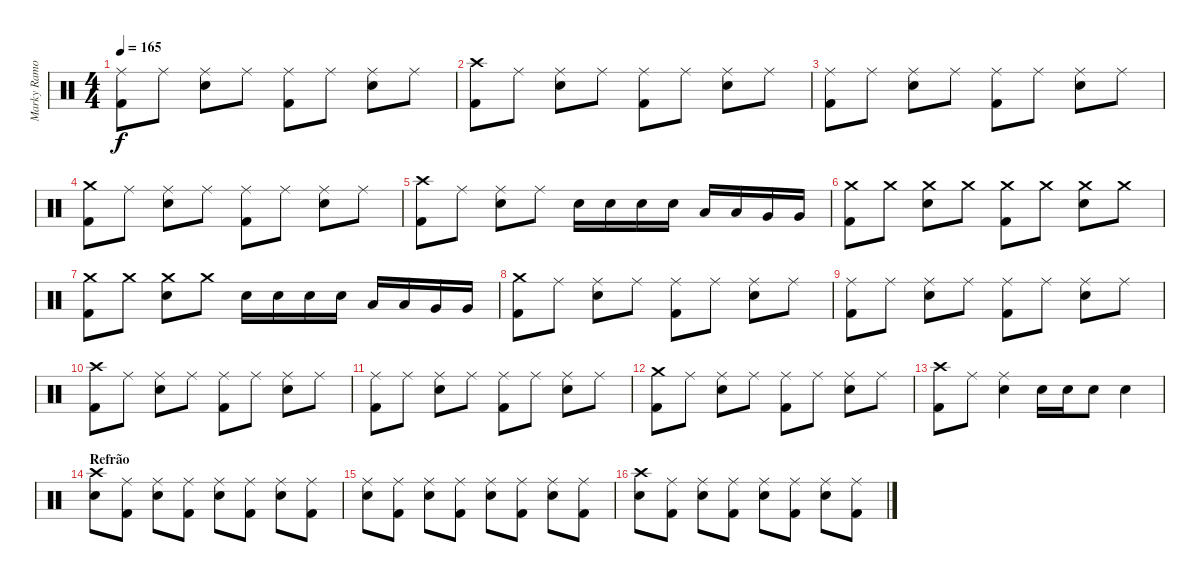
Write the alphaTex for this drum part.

\track ("Marky Ramone, o Próprio" "Marky Ramo") {instrument percussion}
\staff {score}
\articulation defaults
\ts (4 4)
\tempo 165
\clef neutral
\ks c
("Ride (middle)" "Kick (hit) 2").8{dy f} "Ride (middle)".8 ("Ride (middle)" "Electric Snare (hit)").8 "Ride (middle)".8 ("Ride (middle)" "Kick (hit) 2").8 "Ride (middle)".8 ("Ride (middle)" "Electric Snare (hit)").8 "Ride (middle)".8 |
("Crash high (hit)" "Kick (hit) 2").8 "Ride (middle)".8 ("Ride (middle)" "Electric Snare (hit)").8 "Ride (middle)".8 ("Ride (middle)" "Kick (hit) 2").8 "Ride (middle)".8 ("Ride (middle)" "Electric Snare (hit)").8 "Ride (middle)".8 |
("Ride (middle)" "Kick (hit) 2").8 "Ride (middle)".8 ("Ride (middle)" "Electric Snare (hit)").8 "Ride (middle)".8 ("Ride (middle)" "Kick (hit) 2").8 "Ride (middle)".8 ("Ride (middle)" "Electric Snare (hit)").8 "Ride (middle)".8 |
("Crash medium (hit)" "Kick (hit) 2").8 "Ride (middle)".8 ("Ride (middle)" "Electric Snare (hit)").8 "Ride (middle)".8 ("Ride (middle)" "Kick (hit) 2").8 "Ride (middle)".8 ("Ride (middle)" "Electric Snare (hit)").8 "Ride (middle)".8 |
("Crash high (hit)" "Kick (hit) 2").8 "Ride (middle)".8 ("Ride (middle)" "Electric Snare (hit)").8 "Ride (middle)".8 "Electric Snare (hit)".16 "Electric Snare (hit)".16 "Electric Snare (hit)".16 "Electric Snare (hit)".16 "Low Tom (hit)".16 "Low Tom (hit)".16 "Very Low Tom (hit)".16 "Very Low Tom (hit)".16 |
("Crash medium (hit)" "Kick (hit) 2").8 "Crash medium (hit)".8 ("Crash medium (hit)" "Electric Snare (hit)").8 "Crash medium (hit)".8 ("Crash medium (hit)" "Kick (hit) 2").8 "Crash medium (hit)".8 ("Crash medium (hit)" "Electric Snare (hit)").8 "Crash medium (hit)".8 |
("Crash medium (hit)" "Kick (hit) 2").8 "Crash medium (hit)".8 ("Crash medium (hit)" "Electric Snare (hit)").8 "Crash medium (hit)".8 "Electric Snare (hit)".16 "Electric Snare (hit)".16 "Electric Snare (hit)".16 "Electric Snare (hit)".16 "Low Tom (hit)".16 "Low Tom (hit)".16 "Very Low Tom (hit)".16 "Very Low Tom (hit)".16 |
("Crash medium (hit)" "Kick (hit) 2").8 "Ride (middle)".8 ("Ride (middle)" "Electric Snare (hit)").8 "Ride (middle)".8 ("Ride (middle)" "Kick (hit) 2").8 "Ride (middle)".8 ("Ride (middle)" "Electric Snare (hit)").8 "Ride (middle)".8 |
("Ride (middle)" "Kick (hit) 2").8 "Ride (middle)".8 ("Ride (middle)" "Electric Snare (hit)").8 "Ride (middle)".8 ("Ride (middle)" "Kick (hit) 2").8 "Ride (middle)".8 ("Ride (middle)" "Electric Snare (hit)").8 "Ride (middle)".8 |
("Crash high (hit)" "Kick (hit) 2").8 "Ride (middle)".8 ("Ride (middle)" "Electric Snare (hit)").8 "Ride (middle)".8 ("Ride (middle)" "Kick (hit) 2").8 "Ride (middle)".8 ("Ride (middle)" "Electric Snare (hit)").8 "Ride (middle)".8 |
("Ride (middle)" "Kick (hit) 2").8 "Ride (middle)".8 ("Ride (middle)" "Electric Snare (hit)").8 "Ride (middle)".8 ("Ride (middle)" "Kick (hit) 2").8 "Ride (middle)".8 ("Ride (middle)" "Electric Snare (hit)").8 "Ride (middle)".8 |
("Crash medium (hit)" "Kick (hit) 2").8 "Ride (middle)".8 ("Ride (middle)" "Electric Snare (hit)").8 "Ride (middle)".8 ("Ride (middle)" "Kick (hit) 2").8 "Ride (middle)".8 ("Ride (middle)" "Electric Snare (hit)").8 "Ride (middle)".8 |
("Crash high (hit)" "Kick (hit) 2").8 "Ride (middle)".8 ("Ride (middle)" "Electric Snare (hit)").4 "Electric Snare (hit)".16 "Electric Snare (hit)".16 "Electric Snare (hit)".8 "Electric Snare (hit)".4 |
\section ("" "Refrão")
("Crash high (hit)" "Electric Snare (hit)").8 ("Ride (middle)" "Kick (hit) 2").8 ("Ride (middle)" "Electric Snare (hit)").8 ("Ride (middle)" "Kick (hit) 2").8 ("Ride (middle)" "Electric Snare (hit)").8 ("Ride (middle)" "Kick (hit) 2").8 ("Ride (middle)" "Electric Snare (hit)").8 ("Ride (middle)" "Kick (hit) 2").8 |
("Ride (middle)" "Electric Snare (hit)").8 ("Ride (middle)" "Kick (hit) 2").8 ("Ride (middle)" "Electric Snare (hit)").8 ("Ride (middle)" "Kick (hit) 2").8 ("Ride (middle)" "Electric Snare (hit)").8 ("Ride (middle)" "Kick (hit) 2").8 ("Ride (middle)" "Electric Snare (hit)").8 ("Ride (middle)" "Kick (hit) 2").8 |
("Crash high (hit)" "Electric Snare (hit)").8 ("Ride (middle)" "Kick (hit) 2").8 ("Ride (middle)" "Electric Snare (hit)").8 ("Ride (middle)" "Kick (hit) 2").8 ("Ride (middle)" "Electric Snare (hit)").8 ("Ride (middle)" "Kick (hit) 2").8 ("Ride (middle)" "Electric Snare (hit)").8 ("Ride (middle)" "Kick (hit) 2").8
